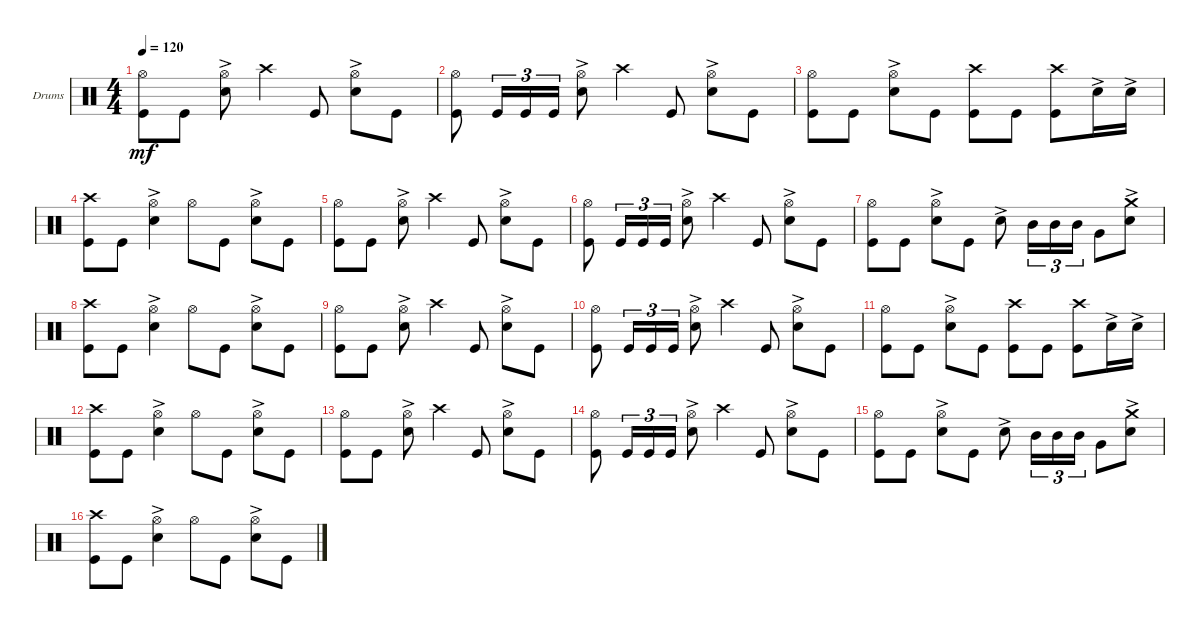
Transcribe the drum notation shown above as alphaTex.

\defaultSystemsLayout 4
\bracketExtendMode groupsimilarinstruments
\firstSystemTrackNameOrientation horizontal
\otherSystemsTrackNameOrientation horizontal
\track ("Drumkit" "Drums") {instrument percussion}
\staff {score}
\articulation defaults
\ts (4 4)
\tempo 120
\clef neutral
\scale
0.333333
\ks c
("Kick (hit)" "Hi-Hat (open)").8{dy mf} "Kick (hit)".8 ("Hi-Hat (open)" "Snare (hit) 2"{ac}).8 "Crash high (hit)".4 "Kick (hit)".8 ("Snare (hit) 2"{ac} "Hi-Hat (open)").8 "Kick (hit)".8 |
\scale
0.333333 ("Kick (hit)" "Hi-Hat (open)").8 "Kick (hit)".16{tu (3 2)} "Kick (hit)".16{tu (3 2)} "Kick (hit)".16{tu (3 2)} ("Hi-Hat (open)" "Snare (hit) 2"{ac}).8 "Crash high (hit)".4 "Kick (hit)".8 ("Snare (hit) 2"{ac} "Hi-Hat (open)").8 "Kick (hit)".8 |
\scale
0.333333 ("Kick (hit)" "Hi-Hat (open)").8 "Kick (hit)".8 ("Hi-Hat (open)" "Snare (hit) 2"{ac}).8 "Kick (hit)".8 ("Kick (hit)" "Crash high (hit)").8 "Kick (hit)".8 ("Kick (hit)" "Crash high (hit)").8 "Snare (hit) 2"{ac}.16 "Snare (hit) 2"{ac}.16 |
\scale
0.333333 ("Kick (hit)" "Crash high (hit)").8 "Kick (hit)".8 ("Hi-Hat (open)" "Snare (hit) 2"{ac}).4 "Hi-Hat (open)".8 "Kick (hit)".8 ("Snare (hit) 2"{ac} "Hi-Hat (open)").8 "Kick (hit)".8 |
\scale
0.333333 ("Kick (hit)" "Hi-Hat (open)").8 "Kick (hit)".8 ("Hi-Hat (open)" "Snare (hit) 2"{ac}).8 "Crash high (hit)".4 "Kick (hit)".8 ("Snare (hit) 2"{ac} "Hi-Hat (open)").8 "Kick (hit)".8 |
\scale
0.333333 ("Kick (hit)" "Hi-Hat (open)").8 "Kick (hit)".16{tu (3 2)} "Kick (hit)".16{tu (3 2)} "Kick (hit)".16{tu (3 2)} ("Hi-Hat (open)" "Snare (hit) 2"{ac}).8 "Crash high (hit)".4 "Kick (hit)".8 ("Snare (hit) 2"{ac} "Hi-Hat (open)").8 "Kick (hit)".8 |
\scale
0.333333 ("Kick (hit)" "Hi-Hat (open)").8 "Kick (hit)".8 ("Hi-Hat (open)" "Snare (hit) 2"{ac}).8 "Kick (hit)".8 "Snare (hit) 2"{ac}.8 "Mid Tom (hit)".16{tu (3 2)} "Mid Tom (hit)".16{tu (3 2)} "Mid Tom (hit)".16{tu (3 2)} "Very Low Tom (hit)".8 ("Snare (hit) 2"{ac} "Crash medium (hit)").8 |
\scale
0.333333 ("Kick (hit)" "Crash high (hit)").8 "Kick (hit)".8 ("Hi-Hat (open)" "Snare (hit) 2"{ac}).4 "Hi-Hat (open)".8 "Kick (hit)".8 ("Snare (hit) 2"{ac} "Hi-Hat (open)").8 "Kick (hit)".8 |
\scale
0.333333 ("Kick (hit)" "Hi-Hat (open)").8 "Kick (hit)".8 ("Hi-Hat (open)" "Snare (hit) 2"{ac}).8 "Crash high (hit)".4 "Kick (hit)".8 ("Snare (hit) 2"{ac} "Hi-Hat (open)").8 "Kick (hit)".8 |
\scale
0.333333 ("Kick (hit)" "Hi-Hat (open)").8 "Kick (hit)".16{tu (3 2)} "Kick (hit)".16{tu (3 2)} "Kick (hit)".16{tu (3 2)} ("Hi-Hat (open)" "Snare (hit) 2"{ac}).8 "Crash high (hit)".4 "Kick (hit)".8 ("Snare (hit) 2"{ac} "Hi-Hat (open)").8 "Kick (hit)".8 |
\scale
0.103896 ("Kick (hit)" "Hi-Hat (open)").8 "Kick (hit)".8 ("Hi-Hat (open)" "Snare (hit) 2"{ac}).8 "Kick (hit)".8 ("Kick (hit)" "Crash high (hit)").8 "Kick (hit)".8 ("Kick (hit)" "Crash high (hit)").8 "Snare (hit) 2"{ac}.16 "Snare (hit) 2"{ac}.16 |
\scale
0.333333 ("Kick (hit)" "Crash high (hit)").8 "Kick (hit)".8 ("Hi-Hat (open)" "Snare (hit) 2"{ac}).4 "Hi-Hat (open)".8 "Kick (hit)".8 ("Snare (hit) 2"{ac} "Hi-Hat (open)").8 "Kick (hit)".8 |
\scale
0.333333 ("Kick (hit)" "Hi-Hat (open)").8 "Kick (hit)".8 ("Hi-Hat (open)" "Snare (hit) 2"{ac}).8 "Crash high (hit)".4 "Kick (hit)".8 ("Snare (hit) 2"{ac} "Hi-Hat (open)").8 "Kick (hit)".8 |
\scale
0.333333 ("Kick (hit)" "Hi-Hat (open)").8 "Kick (hit)".16{tu (3 2)} "Kick (hit)".16{tu (3 2)} "Kick (hit)".16{tu (3 2)} ("Hi-Hat (open)" "Snare (hit) 2"{ac}).8 "Crash high (hit)".4 "Kick (hit)".8 ("Snare (hit) 2"{ac} "Hi-Hat (open)").8 "Kick (hit)".8 |
\scale
0.333333 ("Kick (hit)" "Hi-Hat (open)").8 "Kick (hit)".8 ("Hi-Hat (open)" "Snare (hit) 2"{ac}).8 "Kick (hit)".8 "Snare (hit) 2"{ac}.8 "Mid Tom (hit)".16{tu (3 2)} "Mid Tom (hit)".16{tu (3 2)} "Mid Tom (hit)".16{tu (3 2)} "Very Low Tom (hit)".8 ("Snare (hit) 2"{ac} "Crash medium (hit)").8 |
\scale
0.333333 ("Kick (hit)" "Crash high (hit)").8 "Kick (hit)".8 ("Hi-Hat (open)" "Snare (hit) 2"{ac}).4 "Hi-Hat (open)".8 "Kick (hit)".8 ("Snare (hit) 2"{ac} "Hi-Hat (open)").8 "Kick (hit)".8
